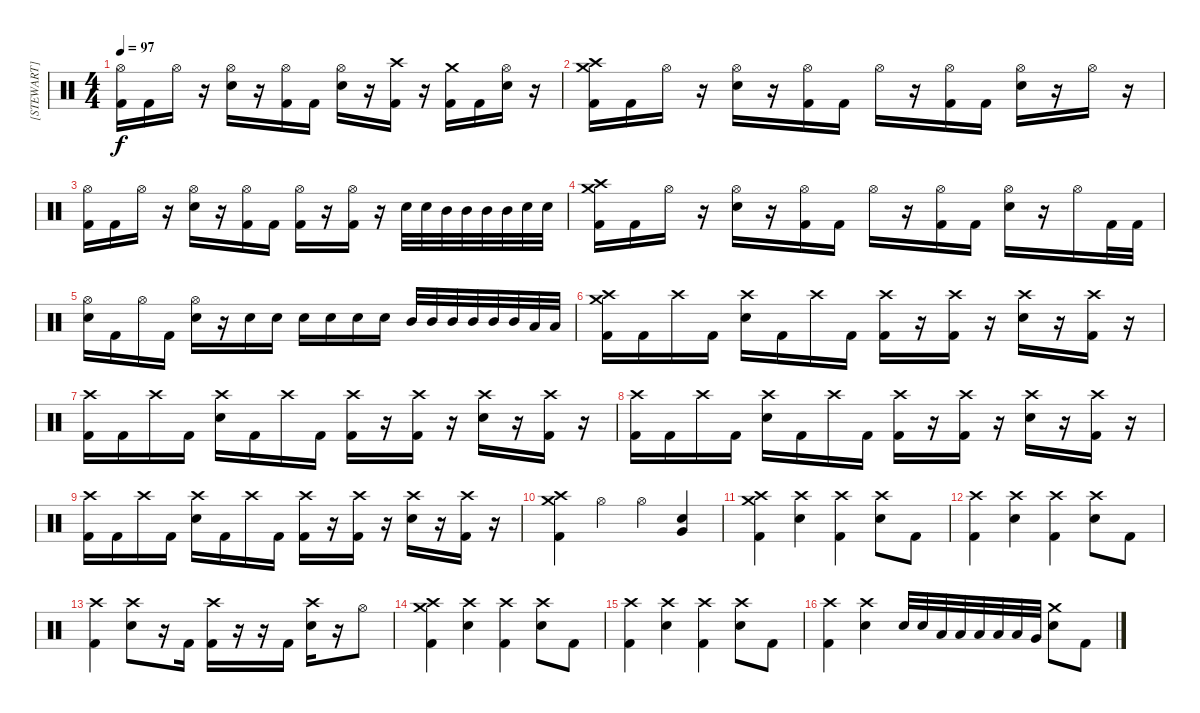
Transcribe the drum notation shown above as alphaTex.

\track ("[STEWART]" "[STEWART]") {instrument percussion}
\staff {score}
\articulation defaults
\ts (4 4)
\tempo 97
\clef neutral
\ks c
("Hi-Hat (open)" "Kick (hit) 2").16{dy f} "Kick (hit) 2".16 "Hi-Hat (open)".16 r.16 ("Hi-Hat (open)" "Electric Snare (hit)").16 r.16 ("Hi-Hat (open)" "Kick (hit) 2").16 "Kick (hit) 2".16 ("Hi-Hat (open)" "Electric Snare (hit)").16 r.16 ("Crash high (hit)" "Kick (hit) 2").16 r.16 ("Crash medium (hit)" "Kick (hit) 2").16 "Kick (hit) 2".16 ("Hi-Hat (open)" "Electric Snare (hit)").16 r.16 |
("Crash high (hit)" "Crash medium (hit)" "Kick (hit) 2").16 "Kick (hit) 2".16 "Hi-Hat (open)".16 r.16 ("Hi-Hat (open)" "Electric Snare (hit)").16 r.16 ("Hi-Hat (open)" "Kick (hit) 2").16 "Kick (hit) 2".16 "Hi-Hat (open)".16 r.16 ("Hi-Hat (open)" "Kick (hit) 2").16 "Kick (hit) 2".16 ("Hi-Hat (open)" "Electric Snare (hit)").16 r.16 "Hi-Hat (open)".16 r.16 |
("Hi-Hat (open)" "Kick (hit) 2").16 "Kick (hit) 2".16 "Hi-Hat (open)".16 r.16 ("Hi-Hat (open)" "Electric Snare (hit)").16 r.16 ("Hi-Hat (open)" "Kick (hit) 2").16 "Kick (hit) 2".16 ("Hi-Hat (open)" "Kick (hit) 2").16 r.16 ("Hi-Hat (open)" "Kick (hit) 2").16 r.16 "Electric Snare (hit)".32 "Electric Snare (hit)".32 "Mid Tom (hit)".32 "Mid Tom (hit)".32 "Mid Tom (hit)".32 "Mid Tom (hit)".32 "Electric Snare (hit)".32 "Electric Snare (hit)".32 |
("Crash high (hit)" "Crash medium (hit)" "Kick (hit) 2").16 "Kick (hit) 2".16 "Hi-Hat (open)".16 r.16 ("Hi-Hat (open)" "Electric Snare (hit)").16 r.16 ("Hi-Hat (open)" "Kick (hit) 2").16 "Kick (hit) 2".16 "Hi-Hat (open)".16 r.16 ("Hi-Hat (open)" "Kick (hit) 2").16 "Kick (hit) 2".16 ("Hi-Hat (open)" "Electric Snare (hit)").16 r.16 "Hi-Hat (open)".16 "Kick (hit) 2".32 "Kick (hit) 2".32 |
("Hi-Hat (open)" "Electric Snare (hit)").16 "Kick (hit) 2".16 "Hi-Hat (open)".16 "Kick (hit) 2".16 ("Hi-Hat (open)" "Electric Snare (hit)").16 r.16 "Electric Snare (hit)".16 "Electric Snare (hit)".16 "Electric Snare (hit)".16 "Electric Snare (hit)".16 "Electric Snare (hit)".16 "Electric Snare (hit)".16 "Mid Tom (hit)".32 "Mid Tom (hit)".32 "Mid Tom (hit)".32 "Mid Tom (hit)".32 "Mid Tom (hit)".32 "Mid Tom (hit)".32 "Low Tom (hit)".32 "Low Tom (hit)".32 |
("Crash high (hit)" "Crash medium (hit)" "Kick (hit) 2").16 "Kick (hit) 2".16 "Crash high (hit)".16 "Kick (hit) 2".16 ("Crash high (hit)" "Electric Snare (hit)").16 "Kick (hit) 2".16 "Crash high (hit)".16 "Kick (hit) 2".16 ("Crash high (hit)" "Kick (hit) 2").16 r.16 ("Crash high (hit)" "Kick (hit) 2").16 r.16 ("Crash high (hit)" "Electric Snare (hit)").16 r.16 ("Crash high (hit)" "Kick (hit) 2").16 r.16 |
("Crash high (hit)" "Kick (hit) 2").16 "Kick (hit) 2".16 "Crash high (hit)".16 "Kick (hit) 2".16 ("Crash high (hit)" "Electric Snare (hit)").16 "Kick (hit) 2".16 "Crash high (hit)".16 "Kick (hit) 2".16 ("Crash high (hit)" "Kick (hit) 2").16 r.16 ("Crash high (hit)" "Kick (hit) 2").16 r.16 ("Crash high (hit)" "Electric Snare (hit)").16 r.16 ("Crash high (hit)" "Kick (hit) 2").16 r.16 |
("Crash high (hit)" "Kick (hit) 2").16 "Kick (hit) 2".16 "Crash high (hit)".16 "Kick (hit) 2".16 ("Crash high (hit)" "Electric Snare (hit)").16 "Kick (hit) 2".16 "Crash high (hit)".16 "Kick (hit) 2".16 ("Crash high (hit)" "Kick (hit) 2").16 r.16 ("Crash high (hit)" "Kick (hit) 2").16 r.16 ("Crash high (hit)" "Electric Snare (hit)").16 r.16 ("Crash high (hit)" "Kick (hit) 2").16 r.16 |
("Crash high (hit)" "Kick (hit) 2").16 "Kick (hit) 2".16 "Crash high (hit)".16 "Kick (hit) 2".16 ("Crash high (hit)" "Electric Snare (hit)").16 "Kick (hit) 2".16 "Crash high (hit)".16 "Kick (hit) 2".16 ("Crash high (hit)" "Kick (hit) 2").16 r.16 ("Crash high (hit)" "Kick (hit) 2").16 r.16 ("Crash high (hit)" "Electric Snare (hit)").16 r.16 ("Crash high (hit)" "Kick (hit) 2").16 r.16 |
("Crash high (hit)" "Crash medium (hit)" "Kick (hit) 2").4 "Hi-Hat (open)".4 "Hi-Hat (open)".4 ("Very Low Tom (hit)" "Electric Snare (hit)").4 |
("Crash high (hit)" "Crash medium (hit)" "Kick (hit) 2").4 ("Crash high (hit)" "Electric Snare (hit)").4 ("Crash high (hit)" "Kick (hit) 2").4 ("Crash high (hit)" "Electric Snare (hit)").8 "Kick (hit) 2".8 |
("Crash high (hit)" "Kick (hit) 2").4 ("Crash high (hit)" "Electric Snare (hit)").4 ("Crash high (hit)" "Kick (hit) 2").4 ("Crash high (hit)" "Electric Snare (hit)").8 "Kick (hit) 2".8 |
("Crash high (hit)" "Kick (hit) 2").4 ("Crash high (hit)" "Electric Snare (hit)").8 r.16 "Kick (hit) 2".16 ("Crash high (hit)" "Kick (hit) 2").16 r.16 r.16 "Kick (hit) 2".16 ("Crash high (hit)" "Electric Snare (hit)").16 r.16 "Hi-Hat (open)".8 |
("Crash high (hit)" "Crash medium (hit)" "Kick (hit) 2").4 ("Crash high (hit)" "Electric Snare (hit)").4 ("Crash high (hit)" "Kick (hit) 2").4 ("Crash high (hit)" "Electric Snare (hit)").8 "Kick (hit) 2".8 |
("Crash high (hit)" "Kick (hit) 2").4 ("Crash high (hit)" "Electric Snare (hit)").4 ("Crash high (hit)" "Kick (hit) 2").4 ("Crash high (hit)" "Electric Snare (hit)").8 "Kick (hit) 2".8 |
("Crash high (hit)" "Kick (hit) 2").4 ("Crash high (hit)" "Electric Snare (hit)").4 "Electric Snare (hit)".32 "Electric Snare (hit)".32 "Low Tom (hit)".32 "Low Tom (hit)".32 "Low Tom (hit)".32 "Low Tom (hit)".32 "Low Tom (hit)".32 "Very Low Tom (hit)".32 ("Crash medium (hit)" "Electric Snare (hit)").8 "Kick (hit) 2".8
